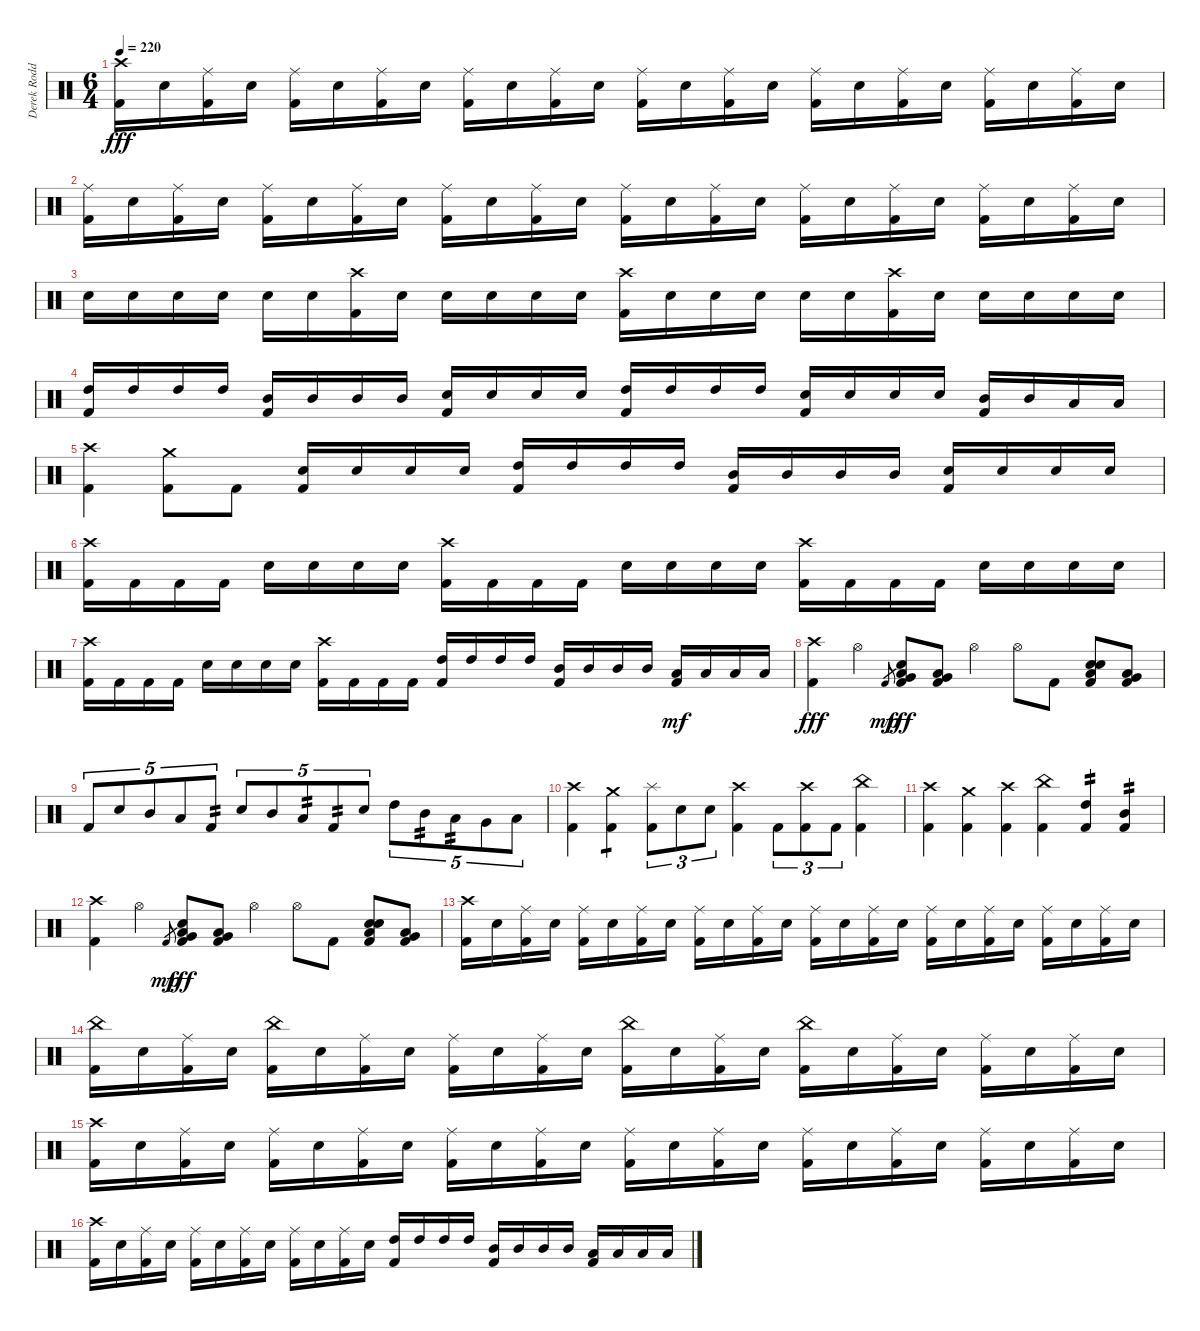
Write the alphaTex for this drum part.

\track ("Derek Roddy" "Derek Rodd") {instrument percussion}
\staff {score}
\articulation defaults
\ts (6 4)
\tempo 220
\clef neutral
\ks c
("Crash high (hit)" "Kick (hit) 2").16{dy fff} "Snare (hit) 2".16 ("Ride (middle)" "Kick (hit) 2").16 "Snare (hit) 2".16 ("Ride (middle)" "Kick (hit) 2").16 "Snare (hit) 2".16 ("Ride (middle)" "Kick (hit) 2").16 "Snare (hit) 2".16 ("Ride (middle)" "Kick (hit) 2").16 "Snare (hit) 2".16 ("Ride (middle)" "Kick (hit) 2").16 "Snare (hit) 2".16 ("Ride (middle)" "Kick (hit) 2").16 "Snare (hit) 2".16 ("Ride (middle)" "Kick (hit) 2").16 "Snare (hit) 2".16 ("Ride (middle)" "Kick (hit) 2").16 "Snare (hit) 2".16 ("Ride (middle)" "Kick (hit) 2").16 "Snare (hit) 2".16 ("Ride (middle)" "Kick (hit) 2").16 "Snare (hit) 2".16 ("Ride (middle)" "Kick (hit) 2").16 "Snare (hit) 2".16 |
("Ride (middle)" "Kick (hit) 2").16 "Snare (hit) 2".16 ("Ride (middle)" "Kick (hit) 2").16 "Snare (hit) 2".16 ("Ride (middle)" "Kick (hit) 2").16 "Snare (hit) 2".16 ("Ride (middle)" "Kick (hit) 2").16 "Snare (hit) 2".16 ("Ride (middle)" "Kick (hit) 2").16 "Snare (hit) 2".16 ("Ride (middle)" "Kick (hit) 2").16 "Snare (hit) 2".16 ("Ride (middle)" "Kick (hit) 2").16 "Snare (hit) 2".16 ("Ride (middle)" "Kick (hit) 2").16 "Snare (hit) 2".16 ("Ride (middle)" "Kick (hit) 2").16 "Snare (hit) 2".16 ("Ride (middle)" "Kick (hit) 2").16 "Snare (hit) 2".16 ("Ride (middle)" "Kick (hit) 2").16 "Snare (hit) 2".16 ("Ride (middle)" "Kick (hit) 2").16 "Snare (hit) 2".16 |
"Snare (hit) 2".16 "Snare (hit) 2".16 "Snare (hit) 2".16 "Snare (hit) 2".16 "Snare (hit) 2".16 "Snare (hit) 2".16 ("Crash high (hit)" "Kick (hit) 2").16 "Snare (hit) 2".16 "Snare (hit) 2".16 "Snare (hit) 2".16 "Snare (hit) 2".16 "Snare (hit) 2".16 ("Crash high (hit)" "Kick (hit) 2").16 "Snare (hit) 2".16 "Snare (hit) 2".16 "Snare (hit) 2".16 "Snare (hit) 2".16 "Snare (hit) 2".16 ("Crash high (hit)" "Kick (hit) 2").16 "Snare (hit) 2".16 "Snare (hit) 2".16 "Snare (hit) 2".16 "Snare (hit) 2".16 "Snare (hit) 2".16 |
("Kick (hit) 2" "High Tom (hit)").16 "High Tom (hit)".16 "High Tom (hit)".16 "High Tom (hit)".16 ("Kick (hit) 2" "Mid Tom (hit)").16 "Mid Tom (hit)".16 "Mid Tom (hit)".16 "Mid Tom (hit)".16 ("Kick (hit) 2" "Snare (hit) 2").16 "Snare (hit) 2".16 "Snare (hit) 2".16 "Snare (hit) 2".16 ("Kick (hit) 2" "High Tom (hit)").16 "High Tom (hit)".16 "High Tom (hit)".16 "High Tom (hit)".16 ("Kick (hit) 2" "Snare (hit) 2").16 "Snare (hit) 2".16 "Snare (hit) 2".16 "Snare (hit) 2".16 ("Kick (hit) 2" "Mid Tom (hit)").16 "Mid Tom (hit)".16 "Low Tom (hit)".16 "Low Tom (hit)".16 |
("Crash high (hit)" "Kick (hit) 2").4 ("Crash medium (hit)" "Kick (hit) 2").8 "Kick (hit) 2".8 ("Snare (hit) 2" "Kick (hit) 2").16 "Snare (hit) 2".16 "Snare (hit) 2".16 "Snare (hit) 2".16 ("High Tom (hit)" "Kick (hit) 2").16 "High Tom (hit)".16 "High Tom (hit)".16 "High Tom (hit)".16 ("Mid Tom (hit)" "Kick (hit) 2").16 "Mid Tom (hit)".16 "Mid Tom (hit)".16 "Mid Tom (hit)".16 ("Snare (hit) 2" "Kick (hit) 2").16 "Snare (hit) 2".16 "Snare (hit) 2".16 "Snare (hit) 2".16 |
("Crash high (hit)" "Kick (hit) 2").16 "Kick (hit) 2".16 "Kick (hit) 2".16 "Kick (hit) 2".16 "Snare (hit) 2".16 "Snare (hit) 2".16 "Snare (hit) 2".16 "Snare (hit) 2".16 ("Crash high (hit)" "Kick (hit) 2").16 "Kick (hit) 2".16 "Kick (hit) 2".16 "Kick (hit) 2".16 "Snare (hit) 2".16 "Snare (hit) 2".16 "Snare (hit) 2".16 "Snare (hit) 2".16 ("Crash high (hit)" "Kick (hit) 2").16 "Kick (hit) 2".16 "Kick (hit) 2".16 "Kick (hit) 2".16 "Snare (hit) 2".16 "Snare (hit) 2".16 "Snare (hit) 2".16 "Snare (hit) 2".16 |
("Crash high (hit)" "Kick (hit) 2").16 "Kick (hit) 2".16 "Kick (hit) 2".16 "Kick (hit) 2".16 "Snare (hit) 2".16 "Snare (hit) 2".16 "Snare (hit) 2".16 "Snare (hit) 2".16 ("Crash high (hit)" "Kick (hit) 2").16 "Kick (hit) 2".16 "Kick (hit) 2".16 "Kick (hit) 2".16 ("High Tom (hit)" "Kick (hit) 2").16 "High Tom (hit)".16 "High Tom (hit)".16 "High Tom (hit)".16 ("Mid Tom (hit)" "Kick (hit) 2").16 "Mid Tom (hit)".16 "Mid Tom (hit)".16 "Mid Tom (hit)".16 ("Low Tom (hit)" "Kick (hit) 2").16{dy mf} "Low Tom (hit)".16 "Low Tom (hit)".16 "Low Tom (hit)".16 |
("Crash high (hit)" "Kick (hit) 2").4{dy fff} "Hi-Hat (open)".4 "Kick (hit) 2".8{gr dy mp} ("Snare (hit)" "Very Low Tom (hit)" "Low Floor Tom (hit)" "Kick (hit) 2").8{dy fff} ("Very Low Tom (hit)" "Low Floor Tom (hit)" "Kick (hit) 2").8 "Hi-Hat (open)".4 "Hi-Hat (open)".8 "Kick (hit) 2".8 ("Snare (hit)" "Snare (hit) 2" "Low Floor Tom (hit)" "Kick (hit) 2").8 ("Very Low Tom (hit)" "Low Floor Tom (hit)" "Kick (hit) 2").8 |
"Kick (hit) 2".8{tu (5 4)} "Snare (hit) 2".8{tu (5 4)} "Mid Tom (hit)".8{tu (5 4)} "Low Tom (hit)".8{tu (5 4)} "Kick (hit) 2".8{tu (5 4) tp 2} "Snare (hit) 2".8{tu (5 4)} "Mid Tom (hit)".8{tu (5 4)} "Low Tom (hit)".8{tu (5 4) tp 2} "Kick (hit) 2".8{tu (5 4) tp 2} "Snare (hit) 2".8{tu (5 4)} "High Tom (hit)".8{tu (5 4)} "Mid Tom (hit)".8{tu (5 4) tp 2} "Low Tom (hit)".8{tu (5 4) tp 2} "Very Low Tom (hit)".8{tu (5 4)} "Low Floor Tom (hit)".8{tu (5 4)} |
("Crash high (hit)" "Kick (hit) 2").4 ("Crash medium (hit)" "Kick (hit) 2").4{tp 1} ("Splash (hit)" "Kick (hit) 2").8{tu (3 2)} "Snare (hit) 2".8{tu (3 2)} "Snare (hit) 2".8{tu (3 2)} ("Crash high (hit)" "Kick (hit) 2").4 "Kick (hit) 2".8{tu (3 2)} ("Crash high (hit)" "Kick (hit) 2").8{tu (3 2)} "Kick (hit) 2".8{tu (3 2)} ("China (hit)" "Kick (hit) 2").4 |
("Crash high (hit)" "Kick (hit) 2").4 ("Crash medium (hit)" "Kick (hit) 2").4 ("Crash high (hit)" "Kick (hit) 2").4 ("China (hit)" "Kick (hit) 2").4 ("High Tom (hit)" "Kick (hit) 2").4{tp 2} ("Mid Tom (hit)" "Kick (hit) 2").4{tp 2} |
("Crash high (hit)" "Kick (hit) 2").4 "Hi-Hat (open)".4 "Kick (hit) 2".8{gr dy mp} ("Snare (hit)" "Very Low Tom (hit)" "Low Floor Tom (hit)" "Kick (hit) 2").8{dy fff} ("Very Low Tom (hit)" "Low Floor Tom (hit)" "Kick (hit) 2").8 "Hi-Hat (open)".4 "Hi-Hat (open)".8 "Kick (hit) 2".8 ("Snare (hit)" "Snare (hit) 2" "Low Floor Tom (hit)" "Kick (hit) 2").8 ("Very Low Tom (hit)" "Low Floor Tom (hit)" "Kick (hit) 2").8 |
("Crash high (hit)" "Kick (hit) 2").16 "Snare (hit) 2".16 ("Ride (middle)" "Kick (hit) 2").16 "Snare (hit) 2".16 ("Ride (middle)" "Kick (hit) 2").16 "Snare (hit) 2".16 ("Ride (middle)" "Kick (hit) 2").16 "Snare (hit) 2".16 ("Ride (middle)" "Kick (hit) 2").16 "Snare (hit) 2".16 ("Ride (middle)" "Kick (hit) 2").16 "Snare (hit) 2".16 ("Ride (middle)" "Kick (hit) 2").16 "Snare (hit) 2".16 ("Ride (middle)" "Kick (hit) 2").16 "Snare (hit) 2".16 ("Ride (middle)" "Kick (hit) 2").16 "Snare (hit) 2".16 ("Ride (middle)" "Kick (hit) 2").16 "Snare (hit) 2".16 ("Ride (middle)" "Kick (hit) 2").16 "Snare (hit) 2".16 ("Ride (middle)" "Kick (hit) 2").16 "Snare (hit) 2".16 |
("China (hit)" "Kick (hit) 2").16 "Snare (hit) 2".16 ("Ride (middle)" "Kick (hit) 2").16 "Snare (hit) 2".16 ("China (hit)" "Kick (hit) 2").16 "Snare (hit) 2".16 ("Ride (middle)" "Kick (hit) 2").16 "Snare (hit) 2".16 ("Ride (middle)" "Kick (hit) 2").16 "Snare (hit) 2".16 ("Ride (middle)" "Kick (hit) 2").16 "Snare (hit) 2".16 ("China (hit)" "Kick (hit) 2").16 "Snare (hit) 2".16 ("Ride (middle)" "Kick (hit) 2").16 "Snare (hit) 2".16 ("China (hit)" "Kick (hit) 2").16 "Snare (hit) 2".16 ("Ride (middle)" "Kick (hit) 2").16 "Snare (hit) 2".16 ("Ride (middle)" "Kick (hit) 2").16 "Snare (hit) 2".16 ("Ride (middle)" "Kick (hit) 2").16 "Snare (hit) 2".16 |
("Crash high (hit)" "Kick (hit) 2").16 "Snare (hit) 2".16 ("Ride (middle)" "Kick (hit) 2").16 "Snare (hit) 2".16 ("Ride (middle)" "Kick (hit) 2").16 "Snare (hit) 2".16 ("Ride (middle)" "Kick (hit) 2").16 "Snare (hit) 2".16 ("Ride (middle)" "Kick (hit) 2").16 "Snare (hit) 2".16 ("Ride (middle)" "Kick (hit) 2").16 "Snare (hit) 2".16 ("Ride (middle)" "Kick (hit) 2").16 "Snare (hit) 2".16 ("Ride (middle)" "Kick (hit) 2").16 "Snare (hit) 2".16 ("Ride (middle)" "Kick (hit) 2").16 "Snare (hit) 2".16 ("Ride (middle)" "Kick (hit) 2").16 "Snare (hit) 2".16 ("Ride (middle)" "Kick (hit) 2").16 "Snare (hit) 2".16 ("Ride (middle)" "Kick (hit) 2").16 "Snare (hit) 2".16 |
("Crash high (hit)" "Kick (hit) 2").16 "Snare (hit) 2".16 ("Ride (middle)" "Kick (hit) 2").16 "Snare (hit) 2".16 ("Ride (middle)" "Kick (hit) 2").16 "Snare (hit) 2".16 ("Ride (middle)" "Kick (hit) 2").16 "Snare (hit) 2".16 ("Ride (middle)" "Kick (hit) 2").16 "Snare (hit) 2".16 ("Ride (middle)" "Kick (hit) 2").16 "Snare (hit) 2".16 ("High Tom (hit)" "Kick (hit) 2").16 "High Tom (hit)".16 "High Tom (hit)".16 "High Tom (hit)".16 ("Mid Tom (hit)" "Kick (hit) 2").16 "Mid Tom (hit)".16 "Mid Tom (hit)".16 "Mid Tom (hit)".16 ("Low Tom (hit)" "Kick (hit) 2").16 "Low Tom (hit)".16 "Low Tom (hit)".16 "Low Tom (hit)".16
